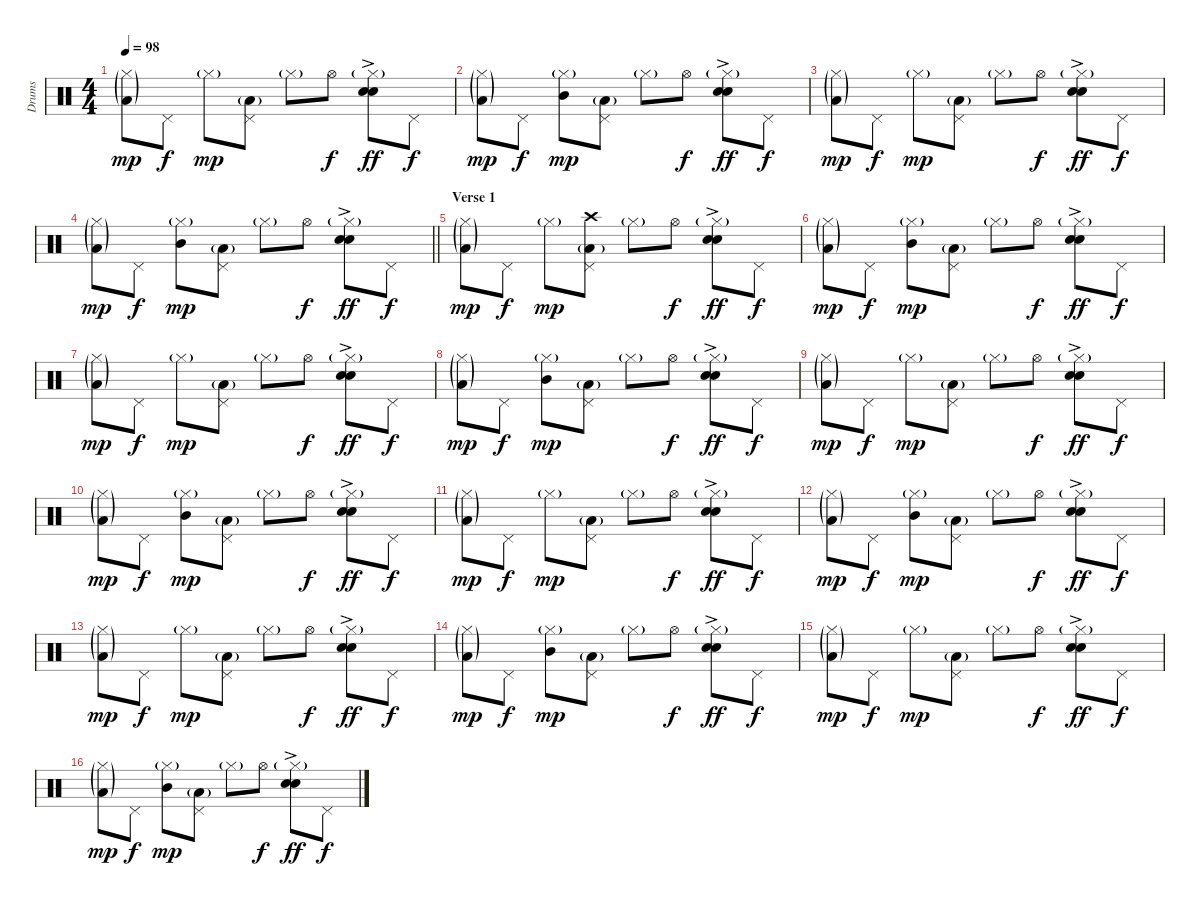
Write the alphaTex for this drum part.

\track ("Drums" "Drums") {instrument percussion}
\staff {score}
\articulation defaults
\ts (4 4)
\tempo 98
\clef neutral
\ks c
("Hi-Hat (closed)"{g} "Low Tom (hit)"{g}).8{dy mp} "Pedal Hi-Hat (hit)".8{dy f} "Hi-Hat (closed)"{g}.8{dy mp} ("Pedal Hi-Hat (hit)" "Low Tom (hit)"{g}).8 "Hi-Hat (closed)"{g}.8 "Hi-Hat (open)".8{dy f} ("Hi-Hat (closed)"{g} "Snare (hit) 2"{ac} "Snare (hit) 2"{ac}).8{dy ff} "Pedal Hi-Hat (hit)".8{dy f} |
("Hi-Hat (closed)"{g} "Low Tom (hit)"{g}).8{dy mp} "Pedal Hi-Hat (hit)".8{dy f} ("Hi-Hat (closed)"{g} "Mid Tom (hit)").8{dy mp} ("Pedal Hi-Hat (hit)" "Low Tom (hit)"{g}).8 "Hi-Hat (closed)"{g}.8 "Hi-Hat (open)".8{dy f} ("Hi-Hat (closed)"{g} "Snare (hit) 2"{ac} "Snare (hit) 2"{ac}).8{dy ff} "Pedal Hi-Hat (hit)".8{dy f} |
("Hi-Hat (closed)"{g} "Low Tom (hit)"{g}).8{dy mp} "Pedal Hi-Hat (hit)".8{dy f} "Hi-Hat (closed)"{g}.8{dy mp} ("Pedal Hi-Hat (hit)" "Low Tom (hit)"{g}).8 "Hi-Hat (closed)"{g}.8 "Hi-Hat (open)".8{dy f} ("Hi-Hat (closed)"{g} "Snare (hit) 2"{ac} "Snare (hit) 2"{ac}).8{dy ff} "Pedal Hi-Hat (hit)".8{dy f} |
\barLineRight lightlight
("Hi-Hat (closed)"{g} "Low Tom (hit)"{g}).8{dy mp} "Pedal Hi-Hat (hit)".8{dy f} ("Hi-Hat (closed)"{g} "Mid Tom (hit)").8{dy mp} ("Pedal Hi-Hat (hit)" "Low Tom (hit)"{g}).8 "Hi-Hat (closed)"{g}.8 "Hi-Hat (open)".8{dy f} ("Hi-Hat (closed)"{g} "Snare (hit) 2"{ac} "Snare (hit) 2"{ac}).8{dy ff} "Pedal Hi-Hat (hit)".8{dy f} |
\section ("" "Verse 1")
("Hi-Hat (closed)"{g} "Low Tom (hit)"{g}).8{dy mp} "Pedal Hi-Hat (hit)".8{dy f} "Hi-Hat (closed)"{g}.8{dy mp} ("Pedal Hi-Hat (hit)" "Crash high (hit)" "Low Tom (hit)"{g}).8 "Hi-Hat (closed)"{g}.8 "Hi-Hat (open)".8{dy f} ("Hi-Hat (closed)"{g} "Snare (hit) 2"{ac} "Snare (hit) 2"{ac}).8{dy ff} "Pedal Hi-Hat (hit)".8{dy f} |
("Hi-Hat (closed)"{g} "Low Tom (hit)"{g}).8{dy mp} "Pedal Hi-Hat (hit)".8{dy f} ("Hi-Hat (closed)"{g} "Mid Tom (hit)").8{dy mp} ("Pedal Hi-Hat (hit)" "Low Tom (hit)"{g}).8 "Hi-Hat (closed)"{g}.8 "Hi-Hat (open)".8{dy f} ("Hi-Hat (closed)"{g} "Snare (hit) 2"{ac} "Snare (hit) 2"{ac}).8{dy ff} "Pedal Hi-Hat (hit)".8{dy f} |
("Hi-Hat (closed)"{g} "Low Tom (hit)"{g}).8{dy mp} "Pedal Hi-Hat (hit)".8{dy f} "Hi-Hat (closed)"{g}.8{dy mp} ("Pedal Hi-Hat (hit)" "Low Tom (hit)"{g}).8 "Hi-Hat (closed)"{g}.8 "Hi-Hat (open)".8{dy f} ("Hi-Hat (closed)"{g} "Snare (hit) 2"{ac} "Snare (hit) 2"{ac}).8{dy ff} "Pedal Hi-Hat (hit)".8{dy f} |
("Hi-Hat (closed)"{g} "Low Tom (hit)"{g}).8{dy mp} "Pedal Hi-Hat (hit)".8{dy f} ("Hi-Hat (closed)"{g} "Mid Tom (hit)").8{dy mp} ("Pedal Hi-Hat (hit)" "Low Tom (hit)"{g}).8 "Hi-Hat (closed)"{g}.8 "Hi-Hat (open)".8{dy f} ("Hi-Hat (closed)"{g} "Snare (hit) 2"{ac} "Snare (hit) 2"{ac}).8{dy ff} "Pedal Hi-Hat (hit)".8{dy f} |
("Hi-Hat (closed)"{g} "Low Tom (hit)"{g}).8{dy mp} "Pedal Hi-Hat (hit)".8{dy f} "Hi-Hat (closed)"{g}.8{dy mp} ("Pedal Hi-Hat (hit)" "Low Tom (hit)"{g}).8 "Hi-Hat (closed)"{g}.8 "Hi-Hat (open)".8{dy f} ("Hi-Hat (closed)"{g} "Snare (hit) 2"{ac} "Snare (hit) 2"{ac}).8{dy ff} "Pedal Hi-Hat (hit)".8{dy f} |
("Hi-Hat (closed)"{g} "Low Tom (hit)"{g}).8{dy mp} "Pedal Hi-Hat (hit)".8{dy f} ("Hi-Hat (closed)"{g} "Mid Tom (hit)").8{dy mp} ("Pedal Hi-Hat (hit)" "Low Tom (hit)"{g}).8 "Hi-Hat (closed)"{g}.8 "Hi-Hat (open)".8{dy f} ("Hi-Hat (closed)"{g} "Snare (hit) 2"{ac} "Snare (hit) 2"{ac}).8{dy ff} "Pedal Hi-Hat (hit)".8{dy f} |
("Hi-Hat (closed)"{g} "Low Tom (hit)"{g}).8{dy mp} "Pedal Hi-Hat (hit)".8{dy f} "Hi-Hat (closed)"{g}.8{dy mp} ("Pedal Hi-Hat (hit)" "Low Tom (hit)"{g}).8 "Hi-Hat (closed)"{g}.8 "Hi-Hat (open)".8{dy f} ("Hi-Hat (closed)"{g} "Snare (hit) 2"{ac} "Snare (hit) 2"{ac}).8{dy ff} "Pedal Hi-Hat (hit)".8{dy f} |
("Hi-Hat (closed)"{g} "Low Tom (hit)"{g}).8{dy mp} "Pedal Hi-Hat (hit)".8{dy f} ("Hi-Hat (closed)"{g} "Mid Tom (hit)").8{dy mp} ("Pedal Hi-Hat (hit)" "Low Tom (hit)"{g}).8 "Hi-Hat (closed)"{g}.8 "Hi-Hat (open)".8{dy f} ("Hi-Hat (closed)"{g} "Snare (hit) 2"{ac} "Snare (hit) 2"{ac}).8{dy ff} "Pedal Hi-Hat (hit)".8{dy f} |
("Hi-Hat (closed)"{g} "Low Tom (hit)"{g}).8{dy mp} "Pedal Hi-Hat (hit)".8{dy f} "Hi-Hat (closed)"{g}.8{dy mp} ("Pedal Hi-Hat (hit)" "Low Tom (hit)"{g}).8 "Hi-Hat (closed)"{g}.8 "Hi-Hat (open)".8{dy f} ("Hi-Hat (closed)"{g} "Snare (hit) 2"{ac} "Snare (hit) 2"{ac}).8{dy ff} "Pedal Hi-Hat (hit)".8{dy f} |
("Hi-Hat (closed)"{g} "Low Tom (hit)"{g}).8{dy mp} "Pedal Hi-Hat (hit)".8{dy f} ("Hi-Hat (closed)"{g} "Mid Tom (hit)").8{dy mp} ("Pedal Hi-Hat (hit)" "Low Tom (hit)"{g}).8 "Hi-Hat (closed)"{g}.8 "Hi-Hat (open)".8{dy f} ("Hi-Hat (closed)"{g} "Snare (hit) 2"{ac} "Snare (hit) 2"{ac}).8{dy ff} "Pedal Hi-Hat (hit)".8{dy f} |
("Hi-Hat (closed)"{g} "Low Tom (hit)"{g}).8{dy mp} "Pedal Hi-Hat (hit)".8{dy f} "Hi-Hat (closed)"{g}.8{dy mp} ("Pedal Hi-Hat (hit)" "Low Tom (hit)"{g}).8 "Hi-Hat (closed)"{g}.8 "Hi-Hat (open)".8{dy f} ("Hi-Hat (closed)"{g} "Snare (hit) 2"{ac} "Snare (hit) 2"{ac}).8{dy ff} "Pedal Hi-Hat (hit)".8{dy f} |
("Hi-Hat (closed)"{g} "Low Tom (hit)"{g}).8{dy mp} "Pedal Hi-Hat (hit)".8{dy f} ("Hi-Hat (closed)"{g} "Mid Tom (hit)").8{dy mp} ("Pedal Hi-Hat (hit)" "Low Tom (hit)"{g}).8 "Hi-Hat (closed)"{g}.8 "Hi-Hat (open)".8{dy f} ("Hi-Hat (closed)"{g} "Snare (hit) 2"{ac} "Snare (hit) 2"{ac}).8{dy ff} "Pedal Hi-Hat (hit)".8{dy f}
